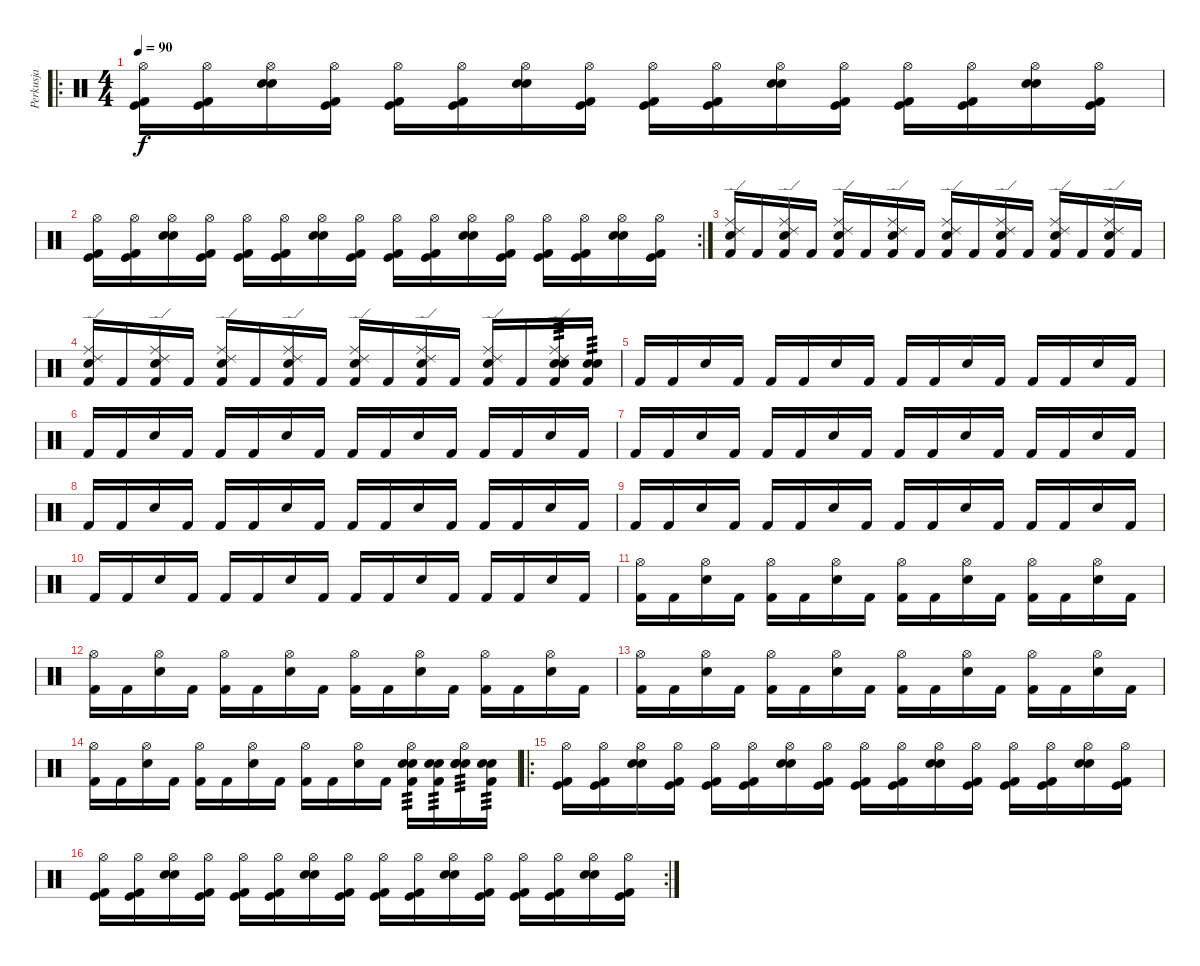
\track ("Perkusja" "Perkusja") {instrument percussion}
\staff {score}
\articulation defaults
\ro
\ts (4 4)
\tempo 90
\clef neutral
\ks c
("Hi-Hat (open)" "Kick (hit) 2" "Kick (hit)").16{dy f} ("Hi-Hat (open)" "Kick (hit) 2" "Kick (hit)").16 ("Hi-Hat (open)" "Snare (hit) 2" "Electric Snare (hit)").16 ("Hi-Hat (open)" "Kick (hit) 2" "Kick (hit)").16 ("Hi-Hat (open)" "Kick (hit) 2" "Kick (hit)").16 ("Hi-Hat (open)" "Kick (hit) 2" "Kick (hit)").16 ("Hi-Hat (open)" "Snare (hit) 2" "Electric Snare (hit)").16 ("Hi-Hat (open)" "Kick (hit) 2" "Kick (hit)").16 ("Hi-Hat (open)" "Kick (hit) 2" "Kick (hit)").16 ("Hi-Hat (open)" "Kick (hit) 2" "Kick (hit)").16 ("Hi-Hat (open)" "Snare (hit) 2" "Electric Snare (hit)").16 ("Hi-Hat (open)" "Kick (hit) 2" "Kick (hit)").16 ("Hi-Hat (open)" "Kick (hit) 2" "Kick (hit)").16 ("Hi-Hat (open)" "Kick (hit) 2" "Kick (hit)").16 ("Hi-Hat (open)" "Snare (hit) 2" "Electric Snare (hit)").16 ("Hi-Hat (open)" "Kick (hit) 2" "Kick (hit)").16 |
\rc 2
("Hi-Hat (open)" "Kick (hit) 2" "Kick (hit)").16 ("Hi-Hat (open)" "Kick (hit) 2" "Kick (hit)").16 ("Hi-Hat (open)" "Snare (hit) 2" "Electric Snare (hit)").16 ("Hi-Hat (open)" "Kick (hit) 2" "Kick (hit)").16 ("Hi-Hat (open)" "Kick (hit) 2" "Kick (hit)").16 ("Hi-Hat (open)" "Kick (hit) 2" "Kick (hit)").16 ("Hi-Hat (open)" "Snare (hit) 2" "Electric Snare (hit)").16 ("Hi-Hat (open)" "Kick (hit) 2" "Kick (hit)").16 ("Hi-Hat (open)" "Kick (hit) 2" "Kick (hit)").16 ("Hi-Hat (open)" "Kick (hit) 2" "Kick (hit)").16 ("Hi-Hat (open)" "Snare (hit) 2" "Electric Snare (hit)").16 ("Hi-Hat (open)" "Kick (hit) 2" "Kick (hit)").16 ("Hi-Hat (open)" "Kick (hit) 2" "Kick (hit)").16 ("Hi-Hat (open)" "Kick (hit) 2" "Kick (hit)").16 ("Hi-Hat (open)" "Snare (hit) 2" "Electric Snare (hit)").16 ("Hi-Hat (open)" "Kick (hit) 2" "Kick (hit)").16 |
("Kick (hit) 2" "Ride (middle)" "Snare (hit) 2" "Ride (edge) 2").16 "Kick (hit) 2".16 ("Kick (hit) 2" "Ride (middle)" "Snare (hit) 2" "Ride (edge) 2").16 "Kick (hit) 2".16 ("Kick (hit) 2" "Ride (middle)" "Snare (hit) 2" "Ride (edge) 2").16 "Kick (hit) 2".16 ("Kick (hit) 2" "Ride (middle)" "Snare (hit) 2" "Ride (edge) 2").16 "Kick (hit) 2".16 ("Kick (hit) 2" "Ride (middle)" "Snare (hit) 2" "Ride (edge) 2").16 "Kick (hit) 2".16 ("Kick (hit) 2" "Ride (middle)" "Snare (hit) 2" "Ride (edge) 2").16 "Kick (hit) 2".16 ("Kick (hit) 2" "Ride (middle)" "Snare (hit) 2" "Ride (edge) 2").16 "Kick (hit) 2".16 ("Kick (hit) 2" "Ride (middle)" "Snare (hit) 2" "Ride (edge) 2").16 "Kick (hit) 2".16 |
("Kick (hit) 2" "Ride (middle)" "Snare (hit) 2" "Ride (edge) 2").16 "Kick (hit) 2".16 ("Kick (hit) 2" "Ride (middle)" "Snare (hit) 2" "Ride (edge) 2").16 "Kick (hit) 2".16 ("Kick (hit) 2" "Ride (middle)" "Snare (hit) 2" "Ride (edge) 2").16 "Kick (hit) 2".16 ("Kick (hit) 2" "Ride (middle)" "Snare (hit) 2" "Ride (edge) 2").16 "Kick (hit) 2".16 ("Kick (hit) 2" "Ride (middle)" "Snare (hit) 2" "Ride (edge) 2").16 "Kick (hit) 2".16 ("Kick (hit) 2" "Ride (middle)" "Snare (hit) 2" "Ride (edge) 2").16 "Kick (hit) 2".16 ("Kick (hit) 2" "Ride (middle)" "Snare (hit) 2" "Ride (edge) 2").16 "Kick (hit) 2".16 ("Kick (hit) 2" "Ride (middle)" "Snare (hit) 2" "Electric Snare (hit)" "Ride (edge) 2").16{tp 3} ("Kick (hit) 2" "Snare (hit) 2" "Electric Snare (hit)").16{tp 3} |
"Kick (hit) 2".16 "Kick (hit) 2".16 "Snare (hit) 2".16 "Kick (hit) 2".16 "Kick (hit) 2".16 "Kick (hit) 2".16 "Snare (hit) 2".16 "Kick (hit) 2".16 "Kick (hit) 2".16 "Kick (hit) 2".16 "Snare (hit) 2".16 "Kick (hit) 2".16 "Kick (hit) 2".16 "Kick (hit) 2".16 "Snare (hit) 2".16 "Kick (hit) 2".16 |
"Kick (hit) 2".16 "Kick (hit) 2".16 "Snare (hit) 2".16 "Kick (hit) 2".16 "Kick (hit) 2".16 "Kick (hit) 2".16 "Snare (hit) 2".16 "Kick (hit) 2".16 "Kick (hit) 2".16 "Kick (hit) 2".16 "Snare (hit) 2".16 "Kick (hit) 2".16 "Kick (hit) 2".16 "Kick (hit) 2".16 "Snare (hit) 2".16 "Kick (hit) 2".16 |
"Kick (hit) 2".16 "Kick (hit) 2".16 "Snare (hit) 2".16 "Kick (hit) 2".16 "Kick (hit) 2".16 "Kick (hit) 2".16 "Snare (hit) 2".16 "Kick (hit) 2".16 "Kick (hit) 2".16 "Kick (hit) 2".16 "Snare (hit) 2".16 "Kick (hit) 2".16 "Kick (hit) 2".16 "Kick (hit) 2".16 "Snare (hit) 2".16 "Kick (hit) 2".16 |
"Kick (hit) 2".16 "Kick (hit) 2".16 "Snare (hit) 2".16 "Kick (hit) 2".16 "Kick (hit) 2".16 "Kick (hit) 2".16 "Snare (hit) 2".16 "Kick (hit) 2".16 "Kick (hit) 2".16 "Kick (hit) 2".16 "Snare (hit) 2".16 "Kick (hit) 2".16 "Kick (hit) 2".16 "Kick (hit) 2".16 "Snare (hit) 2".16 "Kick (hit) 2".16 |
"Kick (hit) 2".16 "Kick (hit) 2".16 "Snare (hit) 2".16 "Kick (hit) 2".16 "Kick (hit) 2".16 "Kick (hit) 2".16 "Snare (hit) 2".16 "Kick (hit) 2".16 "Kick (hit) 2".16 "Kick (hit) 2".16 "Snare (hit) 2".16 "Kick (hit) 2".16 "Kick (hit) 2".16 "Kick (hit) 2".16 "Snare (hit) 2".16 "Kick (hit) 2".16 |
"Kick (hit) 2".16 "Kick (hit) 2".16 "Snare (hit) 2".16 "Kick (hit) 2".16 "Kick (hit) 2".16 "Kick (hit) 2".16 "Snare (hit) 2".16 "Kick (hit) 2".16 "Kick (hit) 2".16 "Kick (hit) 2".16 "Snare (hit) 2".16 "Kick (hit) 2".16 "Kick (hit) 2".16 "Kick (hit) 2".16 "Snare (hit) 2".16 "Kick (hit) 2".16 |
("Kick (hit) 2" "Hi-Hat (open)").16 "Kick (hit) 2".16 ("Snare (hit) 2" "Hi-Hat (open)").16 "Kick (hit) 2".16 ("Kick (hit) 2" "Hi-Hat (open)").16 "Kick (hit) 2".16 ("Snare (hit) 2" "Hi-Hat (open)").16 "Kick (hit) 2".16 ("Kick (hit) 2" "Hi-Hat (open)").16 "Kick (hit) 2".16 ("Snare (hit) 2" "Hi-Hat (open)").16 "Kick (hit) 2".16 ("Kick (hit) 2" "Hi-Hat (open)").16 "Kick (hit) 2".16 ("Snare (hit) 2" "Hi-Hat (open)").16 "Kick (hit) 2".16 |
("Kick (hit) 2" "Hi-Hat (open)").16 "Kick (hit) 2".16 ("Snare (hit) 2" "Hi-Hat (open)").16 "Kick (hit) 2".16 ("Kick (hit) 2" "Hi-Hat (open)").16 "Kick (hit) 2".16 ("Snare (hit) 2" "Hi-Hat (open)").16 "Kick (hit) 2".16 ("Kick (hit) 2" "Hi-Hat (open)").16 "Kick (hit) 2".16 ("Snare (hit) 2" "Hi-Hat (open)").16 "Kick (hit) 2".16 ("Kick (hit) 2" "Hi-Hat (open)").16 "Kick (hit) 2".16 ("Snare (hit) 2" "Hi-Hat (open)").16 "Kick (hit) 2".16 |
("Kick (hit) 2" "Hi-Hat (open)").16 "Kick (hit) 2".16 ("Snare (hit) 2" "Hi-Hat (open)").16 "Kick (hit) 2".16 ("Kick (hit) 2" "Hi-Hat (open)").16 "Kick (hit) 2".16 ("Snare (hit) 2" "Hi-Hat (open)").16 "Kick (hit) 2".16 ("Kick (hit) 2" "Hi-Hat (open)").16 "Kick (hit) 2".16 ("Snare (hit) 2" "Hi-Hat (open)").16 "Kick (hit) 2".16 ("Kick (hit) 2" "Hi-Hat (open)").16 "Kick (hit) 2".16 ("Snare (hit) 2" "Hi-Hat (open)").16 "Kick (hit) 2".16 |
("Kick (hit) 2" "Hi-Hat (open)").16 "Kick (hit) 2".16 ("Snare (hit) 2" "Hi-Hat (open)").16 "Kick (hit) 2".16 ("Kick (hit) 2" "Hi-Hat (open)").16 "Kick (hit) 2".16 ("Snare (hit) 2" "Hi-Hat (open)").16 "Kick (hit) 2".16 ("Kick (hit) 2" "Hi-Hat (open)").16 "Kick (hit) 2".16 ("Snare (hit) 2" "Hi-Hat (open)").16 "Kick (hit) 2".16 ("Kick (hit) 2" "Hi-Hat (open)" "Snare (hit) 2" "Electric Snare (hit)").16{tp 3} ("Kick (hit) 2" "Snare (hit) 2" "Electric Snare (hit)").16{tp 3} ("Snare (hit) 2" "Hi-Hat (open)" "Snare (hit) 2" "Electric Snare (hit)").16{tp 3} ("Kick (hit) 2" "Snare (hit) 2" "Electric Snare (hit)").16{tp 3} |
\ro
("Hi-Hat (open)" "Kick (hit) 2" "Kick (hit)").16 ("Hi-Hat (open)" "Kick (hit) 2" "Kick (hit)").16 ("Hi-Hat (open)" "Snare (hit) 2" "Electric Snare (hit)").16 ("Hi-Hat (open)" "Kick (hit) 2" "Kick (hit)").16 ("Hi-Hat (open)" "Kick (hit) 2" "Kick (hit)").16 ("Hi-Hat (open)" "Kick (hit) 2" "Kick (hit)").16 ("Hi-Hat (open)" "Snare (hit) 2" "Electric Snare (hit)").16 ("Hi-Hat (open)" "Kick (hit) 2" "Kick (hit)").16 ("Hi-Hat (open)" "Kick (hit) 2" "Kick (hit)").16 ("Hi-Hat (open)" "Kick (hit) 2" "Kick (hit)").16 ("Hi-Hat (open)" "Snare (hit) 2" "Electric Snare (hit)").16 ("Hi-Hat (open)" "Kick (hit) 2" "Kick (hit)").16 ("Hi-Hat (open)" "Kick (hit) 2" "Kick (hit)").16 ("Hi-Hat (open)" "Kick (hit) 2" "Kick (hit)").16 ("Hi-Hat (open)" "Snare (hit) 2" "Electric Snare (hit)").16 ("Hi-Hat (open)" "Kick (hit) 2" "Kick (hit)").16 |
\rc 2
("Hi-Hat (open)" "Kick (hit) 2" "Kick (hit)").16 ("Hi-Hat (open)" "Kick (hit) 2" "Kick (hit)").16 ("Hi-Hat (open)" "Snare (hit) 2" "Electric Snare (hit)").16 ("Hi-Hat (open)" "Kick (hit) 2" "Kick (hit)").16 ("Hi-Hat (open)" "Kick (hit) 2" "Kick (hit)").16 ("Hi-Hat (open)" "Kick (hit) 2" "Kick (hit)").16 ("Hi-Hat (open)" "Snare (hit) 2" "Electric Snare (hit)").16 ("Hi-Hat (open)" "Kick (hit) 2" "Kick (hit)").16 ("Hi-Hat (open)" "Kick (hit) 2" "Kick (hit)").16 ("Hi-Hat (open)" "Kick (hit) 2" "Kick (hit)").16 ("Hi-Hat (open)" "Snare (hit) 2" "Electric Snare (hit)").16 ("Hi-Hat (open)" "Kick (hit) 2" "Kick (hit)").16 ("Hi-Hat (open)" "Kick (hit) 2" "Kick (hit)").16 ("Hi-Hat (open)" "Kick (hit) 2" "Kick (hit)").16 ("Hi-Hat (open)" "Snare (hit) 2" "Electric Snare (hit)").16 ("Hi-Hat (open)" "Kick (hit) 2" "Kick (hit)").16
